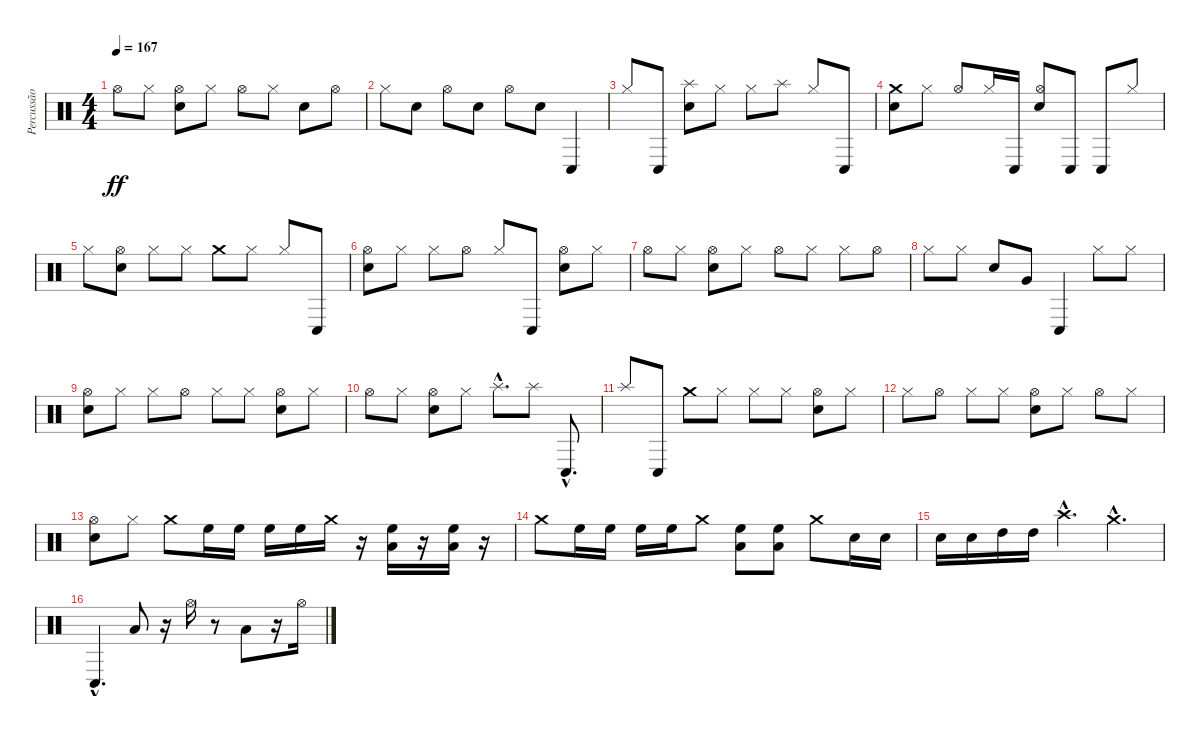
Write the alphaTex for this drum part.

\track ("Percussão" "Percussão") {instrument percussion}
\staff {score}
\articulation defaults
\ts (4 4)
\tempo 167
\clef neutral
\ks c "Hi-Hat (open)".8{dy ff} "Hi-Hat (closed)".8
("Electric Snare (hit)" "Hi-Hat (open)").8 "Hi-Hat (closed)".8 "Hi-Hat (open)".8 "Hi-Hat (closed)".8 "Electric Snare (hit)".8 "Hi-Hat (open)".8 |
"Hi-Hat (closed)".8 "Electric Snare (hit)".8 "Hi-Hat (open)".8 "Electric Snare (hit)".8 "Hi-Hat (open)".8 "Electric Snare (hit)".8 "Conga low (hit)".4 |
"Hi-Hat (closed)".8 "Conga low (hit)".8 ("Electric Snare (hit)" "Splash (hit)").8 "Hi-Hat (closed)".8 "Hi-Hat (closed)".8 "Splash (hit)".8 "Hi-Hat (closed)".8 "Conga low (hit)".8 |
("Electric Snare (hit)" "Crash medium (hit)").8 "Hi-Hat (closed)".8 "Hi-Hat (open)".8 "Hi-Hat (closed)".16 "Conga low (hit)".16 ("Electric Snare (hit)" "Hi-Hat (open)").8 "Conga low (hit)".8 "Conga low (hit)".8 "Hi-Hat (closed)".8 |
"Hi-Hat (closed)".8 ("Electric Snare (hit)" "Hi-Hat (open)").8 "Hi-Hat (closed)".8 "Hi-Hat (closed)".8 "Crash medium (hit)".8 "Hi-Hat (closed)".8 "Hi-Hat (closed)".8 "Conga low (hit)".8 |
("Electric Snare (hit)" "Hi-Hat (open)").8 "Hi-Hat (closed)".8 "Hi-Hat (closed)".8 "Hi-Hat (open)".8 "Hi-Hat (closed)".8 "Conga low (hit)".8 ("Electric Snare (hit)" "Hi-Hat (open)").8 "Hi-Hat (closed)".8 |
"Hi-Hat (open)".8 "Hi-Hat (closed)".8 ("Electric Snare (hit)" "Hi-Hat (open)").8 "Hi-Hat (closed)".8 "Hi-Hat (open)".8 "Hi-Hat (closed)".8 "Hi-Hat (closed)".8 "Hi-Hat (open)".8 |
"Hi-Hat (closed)".8 "Hi-Hat (closed)".8 "Electric Snare (hit)".8 "Very Low Tom (hit)".8 "Conga low (hit)".4 "Hi-Hat (closed)".8 "Hi-Hat (closed)".8 |
("Electric Snare (hit)" "Hi-Hat (open)").8 "Hi-Hat (closed)".8 "Hi-Hat (closed)".8 "Hi-Hat (open)".8 "Hi-Hat (closed)".8 "Hi-Hat (closed)".8 ("Electric Snare (hit)" "Hi-Hat (open)").8 "Hi-Hat (closed)".8 |
"Hi-Hat (open)".8 "Hi-Hat (closed)".8 ("Electric Snare (hit)" "Hi-Hat (open)").8 "Hi-Hat (closed)".8 "Splash (hit)"{hac}.8{d} "Splash (hit)".8 "Conga low (hit)"{hac}.8{d} |
"Splash (hit)".8 "Conga low (hit)".8 "Crash medium (hit)".8 "Hi-Hat (closed)".8 "Hi-Hat (closed)".8 "Hi-Hat (closed)".8 ("Electric Snare (hit)" "Hi-Hat (open)").8 "Hi-Hat (closed)".8 |
"Hi-Hat (closed)".8 "Hi-Hat (open)".8 "Hi-Hat (closed)".8 "Hi-Hat (closed)".8 ("Electric Snare (hit)" "Hi-Hat (open)").8 "Hi-Hat (closed)".8 "Hi-Hat (open)".8 "Hi-Hat (closed)".8 |
("Electric Snare (hit)" "Hi-Hat (open)").8 "Hi-Hat (closed)".8 "Crash medium (hit)".8 "High Floor Tom (hit)".16 "High Floor Tom (hit)".16 "High Floor Tom (hit)".16 "High Floor Tom (hit)".16 "Crash medium (hit)".16 r.16 ("Low Tom (hit)" "High Floor Tom (hit)").16 r.16 ("Low Tom (hit)" "High Floor Tom (hit)").16 r.16 |
"Crash medium (hit)".8 "High Floor Tom (hit)".16 "High Floor Tom (hit)".16 "High Floor Tom (hit)".16 "High Floor Tom (hit)".16 "Crash medium (hit)".8 ("Low Tom (hit)" "High Floor Tom (hit)").8 ("Low Tom (hit)" "High Floor Tom (hit)").8 "Crash medium (hit)".8 "Electric Snare (hit)".16 "Electric Snare (hit)".16 |
"Electric Snare (hit)".16 "Electric Snare (hit)".16 "High Tom (hit)".16 "High Tom (hit)".16 "Crash high (hit)"{hac}.4{d} "Crash medium (hit)"{hac}.4{d} |
"Conga low (hit)"{hac}.4{d} "Low Tom (hit)".8 r.16 "Hi-Hat (open)".16 r.8 "Low Tom (hit)".8 r.16 "Hi-Hat (open)".16
